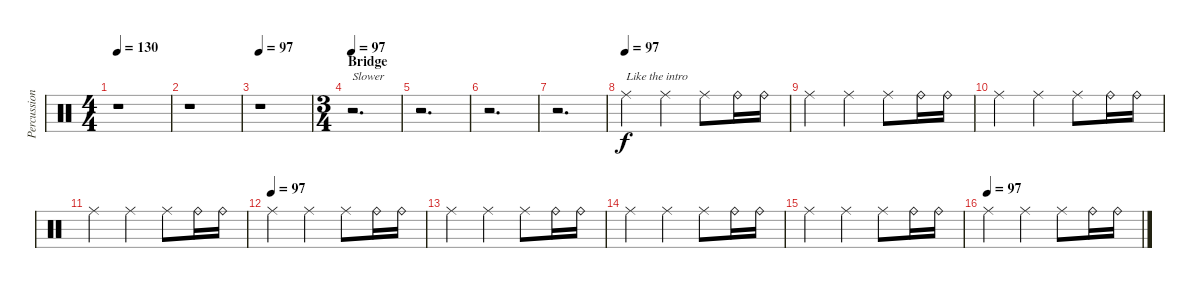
\track ("Percussion" "Percussion") {instrument percussion}
\staff {score}
\articulation defaults
\ts (4 4)
\tempo 130
\clef neutral
\ks c
r.1{dy f} |
r.1 |
\tempo 97
r.1 |
\ts (3 4)
\section ("" "Bridge")
\tempo 97
r.2{d txt "Slower"} |
r.2{d} |
r.2{d} |
r.2{d} |
\tempo (97)
"Ride (middle)".4{txt "Like the intro"} "Ride (middle)".4 "Ride (middle)".8 "Ride (bell)".16 "Ride (bell)".16 |
"Ride (middle)".4 "Ride (middle)".4 "Ride (middle)".8 "Ride (bell)".16 "Ride (bell)".16 |
"Ride (middle)".4 "Ride (middle)".4 "Ride (middle)".8 "Ride (bell)".16 "Ride (bell)".16 |
"Ride (middle)".4 "Ride (middle)".4 "Ride (middle)".8 "Ride (bell)".16 "Ride (bell)".16 |
\tempo (97)
"Ride (middle)".4 "Ride (middle)".4 "Ride (middle)".8 "Ride (bell)".16 "Ride (bell)".16 |
"Ride (middle)".4 "Ride (middle)".4 "Ride (middle)".8 "Ride (bell)".16 "Ride (bell)".16 |
"Ride (middle)".4 "Ride (middle)".4 "Ride (middle)".8 "Ride (bell)".16 "Ride (bell)".16 |
"Ride (middle)".4 "Ride (middle)".4 "Ride (middle)".8 "Ride (bell)".16 "Ride (bell)".16 |
\tempo (97)
"Ride (middle)".4 "Ride (middle)".4 "Ride (middle)".8 "Ride (bell)".16 "Ride (bell)".16
